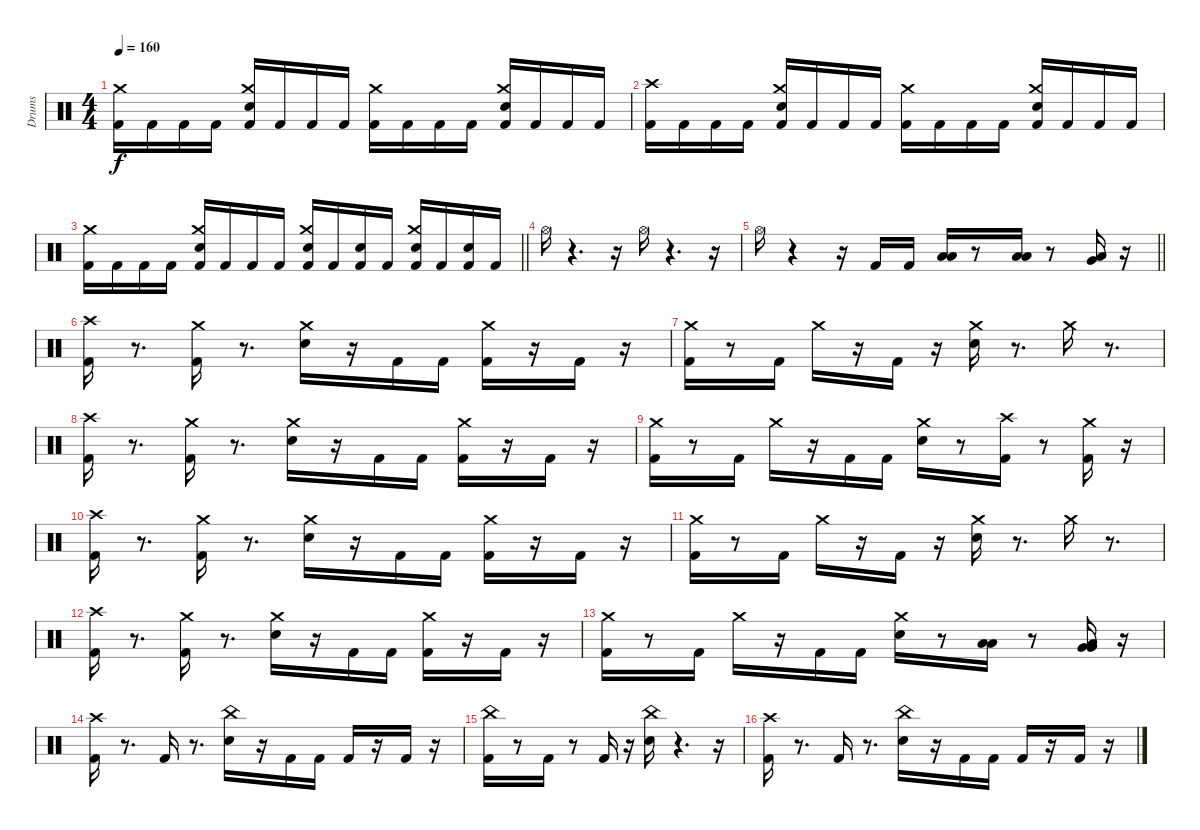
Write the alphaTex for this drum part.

\track ("Drums" "Drums") {instrument percussion}
\staff {score}
\articulation defaults
\ts (4 4)
\tempo 160
\clef neutral
\ks c
("Kick (hit) 2" "Crash medium (hit)").16{dy f} "Kick (hit) 2".16 "Kick (hit) 2".16 "Kick (hit) 2".16 ("Kick (hit) 2" "Snare (hit) 2" "Crash medium (hit)").16 "Kick (hit) 2".16 "Kick (hit) 2".16 "Kick (hit) 2".16 ("Kick (hit) 2" "Crash medium (hit)").16 "Kick (hit) 2".16 "Kick (hit) 2".16 "Kick (hit) 2".16 ("Kick (hit) 2" "Snare (hit) 2" "Crash medium (hit)").16 "Kick (hit) 2".16 "Kick (hit) 2".16 "Kick (hit) 2".16 |
("Kick (hit) 2" "Crash high (hit)").16 "Kick (hit) 2".16 "Kick (hit) 2".16 "Kick (hit) 2".16 ("Kick (hit) 2" "Snare (hit) 2" "Crash medium (hit)").16 "Kick (hit) 2".16 "Kick (hit) 2".16 "Kick (hit) 2".16 ("Kick (hit) 2" "Crash medium (hit)").16 "Kick (hit) 2".16 "Kick (hit) 2".16 "Kick (hit) 2".16 ("Kick (hit) 2" "Snare (hit) 2" "Crash medium (hit)").16 "Kick (hit) 2".16 "Kick (hit) 2".16 "Kick (hit) 2".16 |
\barLineRight lightlight
("Kick (hit) 2" "Crash medium (hit)").16 "Kick (hit) 2".16 "Kick (hit) 2".16 "Kick (hit) 2".16 ("Kick (hit) 2" "Snare (hit) 2" "Crash medium (hit)").16 "Kick (hit) 2".16 "Kick (hit) 2".16 "Kick (hit) 2".16 ("Kick (hit) 2" "Snare (hit) 2" "Crash medium (hit)").16 "Kick (hit) 2".16 ("Kick (hit) 2" "Snare (hit) 2").16 "Kick (hit) 2".16 ("Kick (hit) 2" "Snare (hit) 2" "Crash medium (hit)").16 "Kick (hit) 2".16 ("Kick (hit) 2" "Snare (hit) 2").16 "Kick (hit) 2".16 |
\section ("" " ")
"Hi-Hat (open)".16 r.4{d} r.16 "Hi-Hat (open)".16 r.4{d} r.16 |
\barLineRight lightlight "Hi-Hat (open)".16
r.4 r.16 "Kick (hit) 2".16 "Kick (hit) 2".16 ("Low Floor Tom (hit)" "Low Tom (hit)").16 r.8 ("Low Floor Tom (hit)" "Low Tom (hit)").16 r.8 ("Low Floor Tom (hit)" "Very Low Tom (hit)").16 r.16 |
\section ("" " ")
("Kick (hit) 2" "Crash high (hit)").16 r.8{d} ("Kick (hit) 2" "Crash medium (hit)").16 r.8{d} ("Snare (hit) 2" "Crash medium (hit)").16 r.16 "Kick (hit) 2".16 "Kick (hit) 2".16 ("Kick (hit) 2" "Crash medium (hit)").16 r.16 "Kick (hit) 2".16 r.16 |
("Kick (hit) 2" "Crash medium (hit)").16 r.8 "Kick (hit) 2".16 "Crash medium (hit)".16 r.16 "Kick (hit) 2".16 r.16 ("Snare (hit) 2" "Crash medium (hit)").16 r.8{d} "Crash medium (hit)".16 r.8{d} |
("Kick (hit) 2" "Crash high (hit)").16 r.8{d} ("Kick (hit) 2" "Crash medium (hit)").16 r.8{d} ("Snare (hit) 2" "Crash medium (hit)").16 r.16 "Kick (hit) 2".16 "Kick (hit) 2".16 ("Kick (hit) 2" "Crash medium (hit)").16 r.16 "Kick (hit) 2".16 r.16 |
("Kick (hit) 2" "Crash medium (hit)").16 r.8 "Kick (hit) 2".16 "Crash medium (hit)".16 r.16 "Kick (hit) 2".16 "Kick (hit) 2".16 ("Snare (hit) 2" "Crash medium (hit)").16 r.8 ("Kick (hit) 2" "Crash high (hit)").16 r.8 ("Kick (hit) 2" "Crash medium (hit)").16 r.16 |
("Kick (hit) 2" "Crash high (hit)").16 r.8{d} ("Kick (hit) 2" "Crash medium (hit)").16 r.8{d} ("Snare (hit) 2" "Crash medium (hit)").16 r.16 "Kick (hit) 2".16 "Kick (hit) 2".16 ("Kick (hit) 2" "Crash medium (hit)").16 r.16 "Kick (hit) 2".16 r.16 |
("Kick (hit) 2" "Crash medium (hit)").16 r.8 "Kick (hit) 2".16 "Crash medium (hit)".16 r.16 "Kick (hit) 2".16 r.16 ("Snare (hit) 2" "Crash medium (hit)").16 r.8{d} "Crash medium (hit)".16 r.8{d} |
("Kick (hit) 2" "Crash high (hit)").16 r.8{d} ("Kick (hit) 2" "Crash medium (hit)").16 r.8{d} ("Snare (hit) 2" "Crash medium (hit)").16 r.16 "Kick (hit) 2".16 "Kick (hit) 2".16 ("Kick (hit) 2" "Crash medium (hit)").16 r.16 "Kick (hit) 2".16 r.16 |
("Kick (hit) 2" "Crash medium (hit)").16 r.8 "Kick (hit) 2".16 "Crash medium (hit)".16 r.16 "Kick (hit) 2".16 "Kick (hit) 2".16 ("Snare (hit) 2" "Crash medium (hit)").16 r.8 ("Low Floor Tom (hit)" "Low Tom (hit)").16 r.8 ("Low Floor Tom (hit)" "Very Low Tom (hit)" "Very Low Tom (hit)").16 r.16 |
("Kick (hit) 2" "Crash high (hit)").16 r.8{d} "Kick (hit) 2".16 r.8{d} ("Snare (hit) 2" "China (hit)").16 r.16 "Kick (hit) 2".16 "Kick (hit) 2".16 "Kick (hit) 2".16 r.16 "Kick (hit) 2".16 r.16 |
("Kick (hit) 2" "China (hit)").16 r.8 "Kick (hit) 2".16 r.8 "Kick (hit) 2".16 r.16 ("Snare (hit) 2" "China (hit)").16 r.4{d} r.16 |
("Kick (hit) 2" "Crash high (hit)").16 r.8{d} "Kick (hit) 2".16 r.8{d} ("Snare (hit) 2" "China (hit)").16 r.16 "Kick (hit) 2".16 "Kick (hit) 2".16 "Kick (hit) 2".16 r.16 "Kick (hit) 2".16 r.16
